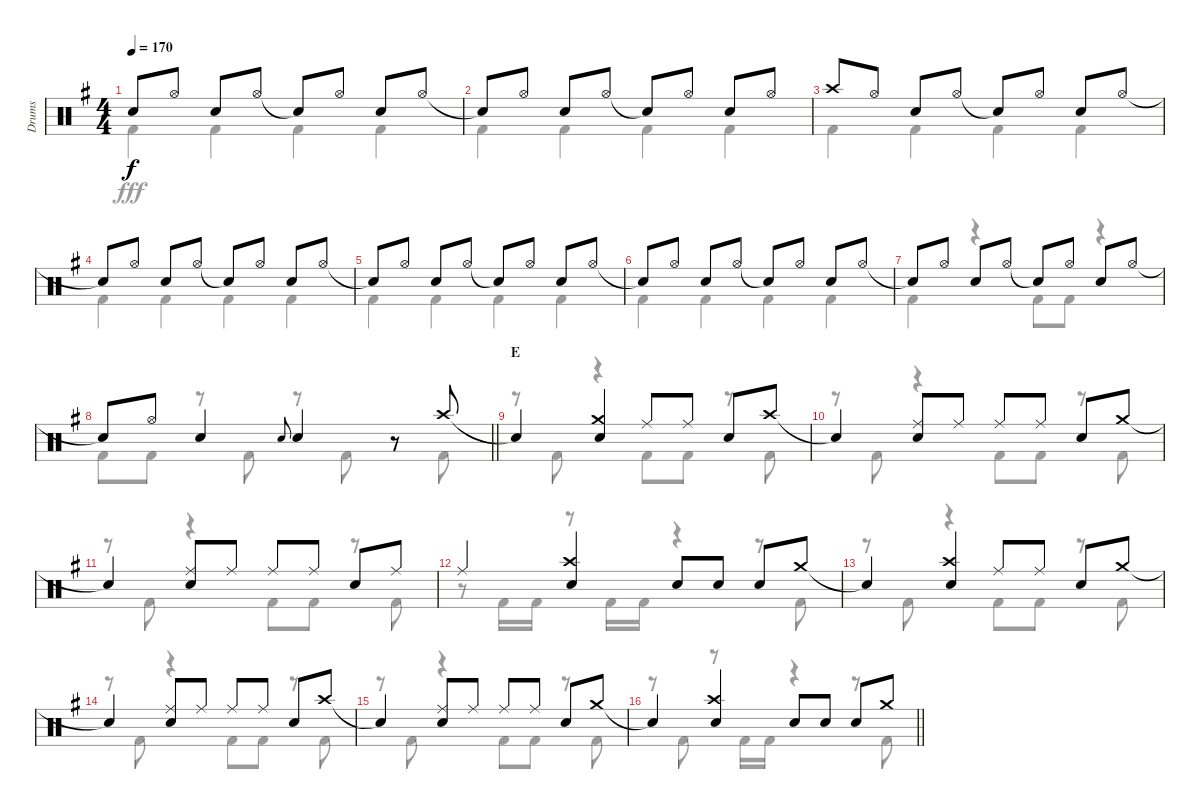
\track ("Drums" "Drums") {instrument percussion}
\staff {score}
\articulation defaults
\voice
\ts (4 4)
\tempo 170
\clef neutral
\ks g "Snare (hit)"{t}.8{dy f} "Hi-Hat (open)".8 "Snare (hit) 2".8 "Hi-Hat (open)".8 "Snare (hit)"{t}.8 "Hi-Hat (open)".8 "Snare (hit) 2".8 "Hi-Hat (open)".8
|
"Snare (hit)"{t}.8 "Hi-Hat (open)".8 "Snare (hit) 2".8 "Hi-Hat (open)".8 "Snare (hit)"{t}.8 "Hi-Hat (open)".8 "Snare (hit) 2".8 "Hi-Hat (open)".8 |
"Crash high (hit)".8 "Hi-Hat (open)".8 "Snare (hit) 2".8 "Hi-Hat (open)".8 "Snare (hit)"{t}.8 "Hi-Hat (open)".8 "Snare (hit) 2".8 "Hi-Hat (open)".8 |
"Snare (hit)"{t}.8 "Hi-Hat (open)".8 "Snare (hit) 2".8 "Hi-Hat (open)".8 "Snare (hit)"{t}.8 "Hi-Hat (open)".8 "Snare (hit) 2".8 "Hi-Hat (open)".8 |
"Snare (hit)"{t}.8 "Hi-Hat (open)".8 "Snare (hit) 2".8 "Hi-Hat (open)".8 "Snare (hit)"{t}.8 "Hi-Hat (open)".8 "Snare (hit) 2".8 "Hi-Hat (open)".8 |
"Snare (hit)"{t}.8 "Hi-Hat (open)".8 "Snare (hit) 2".8 "Hi-Hat (open)".8 "Snare (hit)"{t}.8 "Hi-Hat (open)".8 "Snare (hit) 2".8 "Hi-Hat (open)".8 |
"Snare (hit)"{t}.8 "Hi-Hat (open)".8 "Snare (hit) 2".8 "Hi-Hat (open)".8 "Snare (hit)"{t}.8 "Hi-Hat (open)".8 "Snare (hit) 2".8 "Hi-Hat (open)".8 |
\barLineRight lightlight "Snare (hit)"{t}.8 "Hi-Hat (open)".8 "Snare (hit) 2".4 "Snare (hit) 2".8{gr onbeat} "Snare (hit) 2".4
r.8 "Crash high (hit)".8 |
\section ("" "E")
"Snare (hit)"{t}.4 ("Crash medium (hit)" "Snare (hit) 2").4 "Ride (middle)".8 "Ride (middle)".8 "Snare (hit) 2".8 "Crash high (hit)".8 |
"Snare (hit)"{t}.4 ("Ride (middle)" "Snare (hit) 2").8 "Ride (middle)".8 "Ride (middle)".8 "Ride (middle)".8 "Snare (hit) 2".8 "Crash medium (hit)".8 |
"Snare (hit)"{t}.4 ("Ride (middle)" "Snare (hit) 2").8 "Ride (middle)".8 "Ride (middle)".8 "Ride (middle)".8 "Snare (hit) 2".8 "Ride (middle)".8 |
"Ride (middle)".4 ("Crash high (hit)" "Snare (hit) 2").4 "Snare (hit) 2".8 "Snare (hit) 2".8 "Snare (hit) 2".8 "Crash medium (hit)".8 |
"Snare (hit)"{t}.4 ("Crash high (hit)" "Snare (hit) 2").4 "Ride (middle)".8 "Ride (middle)".8 "Snare (hit) 2".8 "Crash medium (hit)".8 |
"Snare (hit)"{t}.4 ("Ride (middle)" "Snare (hit) 2").8 "Ride (middle)".8 "Ride (middle)".8 "Ride (middle)".8 "Snare (hit) 2".8 "Crash high (hit)".8 |
"Snare (hit)"{t}.4 ("Ride (middle)" "Snare (hit) 2").8 "Ride (middle)".8 "Ride (middle)".8 "Ride (middle)".8 "Snare (hit) 2".8 "Crash medium (hit)".8 |
\barLineRight lightlight "Snare (hit)"{t}.4
("Crash high (hit)" "Snare (hit) 2").4 "Snare (hit) 2".8 "Snare (hit) 2".8 "Snare (hit) 2".8 "Crash medium (hit)".8
\voice
\clef neutral
\ottava regular
\simile none
\ks g "Kick (hit) 2".4{dy fff} "Kick (hit) 2".4 "Kick (hit) 2".4 "Kick (hit) 2".4
|
"Kick (hit) 2".4 "Kick (hit) 2".4 "Kick (hit) 2".4 "Kick (hit) 2".4 |
"Kick (hit) 2".4 "Kick (hit) 2".4 "Kick (hit) 2".4 "Kick (hit) 2".4 |
"Kick (hit) 2".4 "Kick (hit) 2".4 "Kick (hit) 2".4 "Kick (hit) 2".4 |
"Kick (hit) 2".4 "Kick (hit) 2".4 "Kick (hit) 2".4 "Kick (hit) 2".4 |
"Kick (hit) 2".4 "Kick (hit) 2".4 "Kick (hit) 2".4 "Kick (hit) 2".4 |
"Kick (hit) 2".4 r.4 "Kick (hit) 2".8 "Kick (hit) 2".8 r.4 |
\barLineRight lightlight "Kick (hit) 2".8 "Kick (hit) 2".8
r.8 "Kick (hit) 2".8 r.8 "Kick (hit) 2".8 r.8 "Kick (hit) 2".8 |
r.8 "Kick (hit) 2".8 r.4 "Kick (hit) 2".8 "Kick (hit) 2".8 r.8 "Kick (hit) 2".8 |
r.8 "Kick (hit) 2".8 r.4 "Kick (hit) 2".8 "Kick (hit) 2".8 r.8 "Kick (hit) 2".8 |
r.8 "Kick (hit) 2".8 r.4 "Kick (hit) 2".8 "Kick (hit) 2".8 r.8 "Kick (hit) 2".8 |
r.8 "Kick (hit) 2".16 "Kick (hit) 2".16 r.8 "Kick (hit) 2".16 "Kick (hit) 2".16 r.4 r.8 "Kick (hit) 2".8 |
r.8 "Kick (hit) 2".8 r.4 "Kick (hit) 2".8 "Kick (hit) 2".8 r.8 "Kick (hit) 2".8 |
r.8 "Kick (hit) 2".8 r.4 "Kick (hit) 2".8 "Kick (hit) 2".8 r.8 "Kick (hit) 2".8 |
r.8 "Kick (hit) 2".8 r.4 "Kick (hit) 2".8 "Kick (hit) 2".8 r.8 "Kick (hit) 2".8 |
\barLineRight lightlight
r.8 "Kick (hit) 2".8 r.8 "Kick (hit) 2".16 "Kick (hit) 2".16 r.4 r.8 "Kick (hit) 2".8
